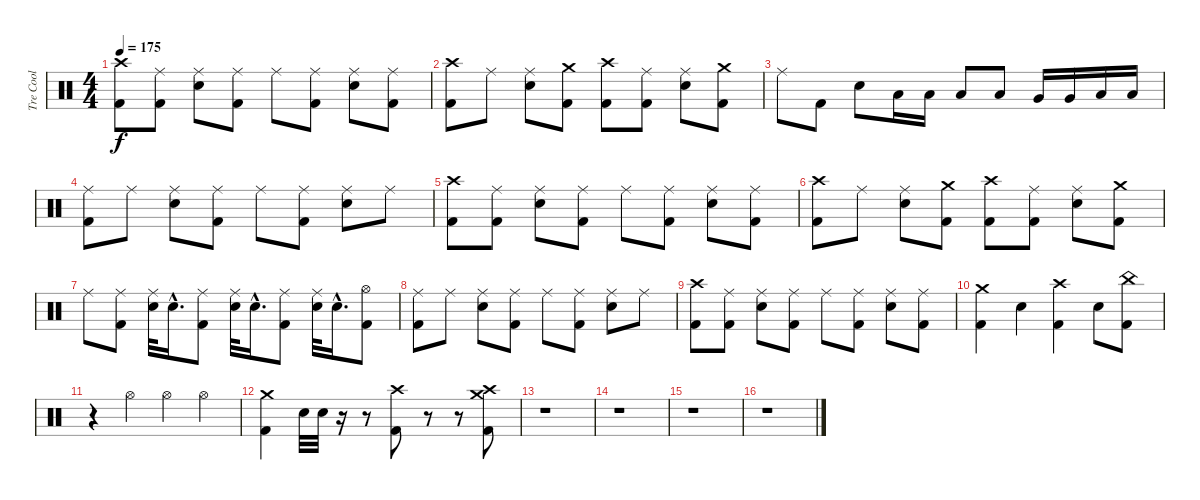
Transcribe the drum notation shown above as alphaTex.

\track ("Tre Cool" "Tre Cool") {instrument percussion}
\staff {score}
\articulation defaults
\ts (4 4)
\tempo 175
\clef neutral
\ks c
("Kick (hit) 2" "Crash high (hit)").8{dy f} ("Kick (hit) 2" "Ride (middle)").8 ("Snare (hit) 2" "Ride (middle)").8 ("Kick (hit) 2" "Ride (middle)").8 "Ride (middle)".8 ("Kick (hit) 2" "Ride (middle)").8 ("Snare (hit) 2" "Ride (middle)").8 ("Kick (hit) 2" "Ride (middle)").8 |
("Kick (hit) 2" "Crash high (hit)").8 "Ride (middle)".8 ("Snare (hit) 2" "Ride (middle)").8 ("Kick (hit) 2" "Crash medium (hit)").8 ("Kick (hit) 2" "Crash high (hit)").8 ("Kick (hit) 2" "Ride (middle)").8 ("Snare (hit) 2" "Ride (middle)").8 ("Kick (hit) 2" "Crash medium (hit)").8 |
"Ride (middle)".8 "Kick (hit) 2".8 "Snare (hit) 2".8 "Low Tom (hit)".16 "Low Tom (hit)".16 "Low Tom (hit)".8 "Low Tom (hit)".8 "Very Low Tom (hit)".16 "Very Low Tom (hit)".16 "Low Floor Tom (hit)".16 "Low Floor Tom (hit)".16 |
("Kick (hit) 2" "Ride (middle)").8 "Ride (middle)".8 ("Snare (hit) 2" "Ride (middle)").8 ("Kick (hit) 2" "Ride (middle)").8 "Ride (middle)".8 ("Kick (hit) 2" "Ride (middle)").8 ("Snare (hit) 2" "Ride (middle)").8 "Ride (middle)".8 |
("Kick (hit) 2" "Crash high (hit)").8 ("Kick (hit) 2" "Ride (middle)").8 ("Snare (hit) 2" "Ride (middle)").8 ("Kick (hit) 2" "Ride (middle)").8 "Ride (middle)".8 ("Kick (hit) 2" "Ride (middle)").8 ("Snare (hit) 2" "Ride (middle)").8 ("Kick (hit) 2" "Ride (middle)").8 |
("Kick (hit) 2" "Crash high (hit)").8 "Ride (middle)".8 ("Snare (hit) 2" "Ride (middle)").8 ("Kick (hit) 2" "Crash medium (hit)").8 ("Kick (hit) 2" "Crash high (hit)").8 ("Kick (hit) 2" "Ride (middle)").8 ("Snare (hit) 2" "Ride (middle)").8 ("Kick (hit) 2" "Crash medium (hit)").8 |
"Ride (middle)".8 ("Kick (hit) 2" "Ride (middle)").8 ("Snare (hit) 2" "Ride (middle)").32 "Snare (hit) 2"{hac}.16{d} ("Kick (hit) 2" "Ride (middle)").8 ("Snare (hit) 2" "Ride (middle)").32 "Snare (hit) 2"{hac}.16{d} ("Kick (hit) 2" "Ride (middle)").8 ("Snare (hit) 2" "Ride (middle)").32 "Snare (hit) 2"{hac}.16{d} ("Kick (hit) 2" "Hi-Hat (open)").8 |
("Kick (hit) 2" "Ride (middle)").8 "Ride (middle)".8 ("Snare (hit) 2" "Ride (middle)").8 ("Kick (hit) 2" "Ride (middle)").8 "Ride (middle)".8 ("Kick (hit) 2" "Ride (middle)").8 ("Snare (hit) 2" "Ride (middle)").8 "Ride (middle)".8 |
("Kick (hit) 2" "Crash high (hit)").8 ("Kick (hit) 2" "Ride (middle)").8 ("Snare (hit) 2" "Ride (middle)").8 ("Kick (hit) 2" "Ride (middle)").8 "Ride (middle)".8 ("Kick (hit) 2" "Ride (middle)").8 ("Snare (hit) 2" "Ride (middle)").8 ("Kick (hit) 2" "Ride (middle)").8 |
("Kick (hit) 2" "Crash medium (hit)").4 "Snare (hit) 2".4 ("Kick (hit) 2" "Crash high (hit)").4 "Snare (hit) 2".8 ("Kick (hit) 2" "China (hit)").8 |
r.4 "Hi-Hat (open)".4 "Hi-Hat (open)".4 "Hi-Hat (open)".4 |
("Kick (hit) 2" "Crash medium (hit)").4 "Snare (hit) 2".32 "Snare (hit) 2".32 r.16 r.8 ("Kick (hit) 2" "Crash high (hit)").8 r.8 r.8 ("Kick (hit) 2" "Crash high (hit)" "Crash medium (hit)").8 |
r.1 |
r.1 |
r.1 |
r.1
